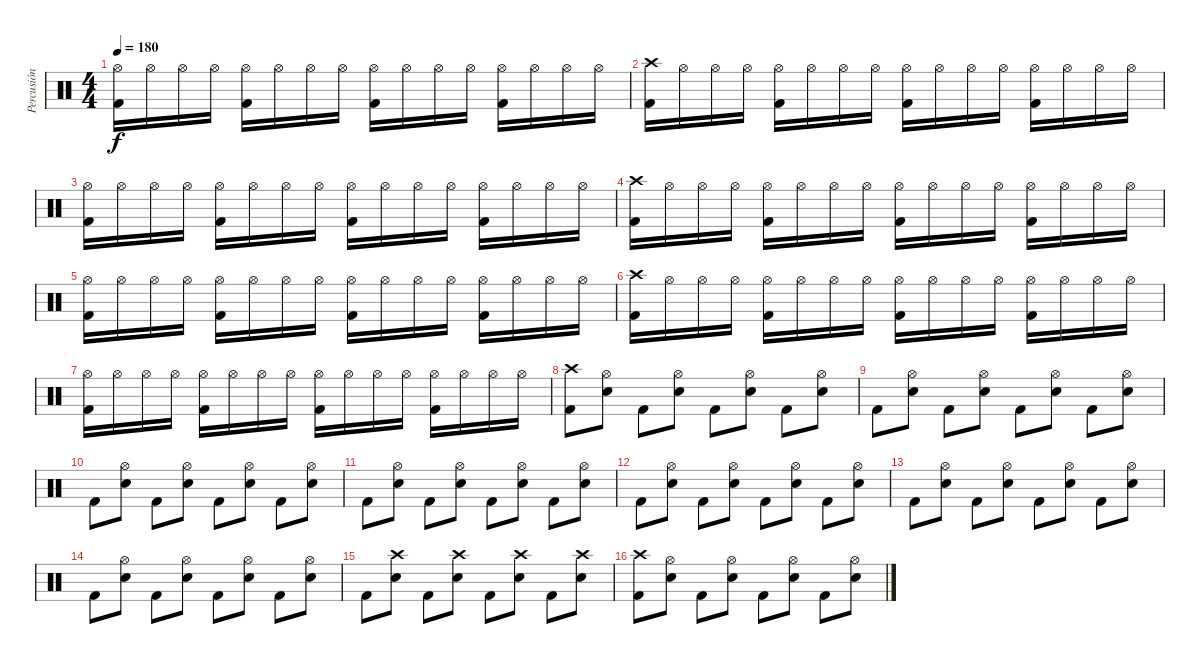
\track ("Percusión" "Percusión") {instrument percussion}
\staff {score}
\articulation defaults
\ts (4 4)
\tempo 180
\clef neutral
\ks c
("Hi-Hat (open)" "Kick (hit) 2").16{dy f} "Hi-Hat (open)".16 "Hi-Hat (open)".16 "Hi-Hat (open)".16 ("Hi-Hat (open)" "Kick (hit) 2").16 "Hi-Hat (open)".16 "Hi-Hat (open)".16 "Hi-Hat (open)".16 ("Hi-Hat (open)" "Kick (hit) 2").16 "Hi-Hat (open)".16 "Hi-Hat (open)".16 "Hi-Hat (open)".16 ("Hi-Hat (open)" "Kick (hit) 2").16 "Hi-Hat (open)".16 "Hi-Hat (open)".16 "Hi-Hat (open)".16 |
("Crash high (hit)" "Kick (hit) 2").16 "Hi-Hat (open)".16 "Hi-Hat (open)".16 "Hi-Hat (open)".16 ("Hi-Hat (open)" "Kick (hit) 2").16 "Hi-Hat (open)".16 "Hi-Hat (open)".16 "Hi-Hat (open)".16 ("Hi-Hat (open)" "Kick (hit) 2").16 "Hi-Hat (open)".16 "Hi-Hat (open)".16 "Hi-Hat (open)".16 ("Hi-Hat (open)" "Kick (hit) 2").16 "Hi-Hat (open)".16 "Hi-Hat (open)".16 "Hi-Hat (open)".16 |
("Hi-Hat (open)" "Kick (hit) 2").16 "Hi-Hat (open)".16 "Hi-Hat (open)".16 "Hi-Hat (open)".16 ("Hi-Hat (open)" "Kick (hit) 2").16 "Hi-Hat (open)".16 "Hi-Hat (open)".16 "Hi-Hat (open)".16 ("Hi-Hat (open)" "Kick (hit) 2").16 "Hi-Hat (open)".16 "Hi-Hat (open)".16 "Hi-Hat (open)".16 ("Hi-Hat (open)" "Kick (hit) 2").16 "Hi-Hat (open)".16 "Hi-Hat (open)".16 "Hi-Hat (open)".16 |
("Crash high (hit)" "Kick (hit) 2").16 "Hi-Hat (open)".16 "Hi-Hat (open)".16 "Hi-Hat (open)".16 ("Hi-Hat (open)" "Kick (hit) 2").16 "Hi-Hat (open)".16 "Hi-Hat (open)".16 "Hi-Hat (open)".16 ("Hi-Hat (open)" "Kick (hit) 2").16 "Hi-Hat (open)".16 "Hi-Hat (open)".16 "Hi-Hat (open)".16 ("Hi-Hat (open)" "Kick (hit) 2").16 "Hi-Hat (open)".16 "Hi-Hat (open)".16 "Hi-Hat (open)".16 |
("Hi-Hat (open)" "Kick (hit) 2").16 "Hi-Hat (open)".16 "Hi-Hat (open)".16 "Hi-Hat (open)".16 ("Hi-Hat (open)" "Kick (hit) 2").16 "Hi-Hat (open)".16 "Hi-Hat (open)".16 "Hi-Hat (open)".16 ("Hi-Hat (open)" "Kick (hit) 2").16 "Hi-Hat (open)".16 "Hi-Hat (open)".16 "Hi-Hat (open)".16 ("Hi-Hat (open)" "Kick (hit) 2").16 "Hi-Hat (open)".16 "Hi-Hat (open)".16 "Hi-Hat (open)".16 |
("Crash high (hit)" "Kick (hit) 2").16 "Hi-Hat (open)".16 "Hi-Hat (open)".16 "Hi-Hat (open)".16 ("Hi-Hat (open)" "Kick (hit) 2").16 "Hi-Hat (open)".16 "Hi-Hat (open)".16 "Hi-Hat (open)".16 ("Hi-Hat (open)" "Kick (hit) 2").16 "Hi-Hat (open)".16 "Hi-Hat (open)".16 "Hi-Hat (open)".16 ("Hi-Hat (open)" "Kick (hit) 2").16 "Hi-Hat (open)".16 "Hi-Hat (open)".16 "Hi-Hat (open)".16 |
("Hi-Hat (open)" "Kick (hit) 2").16 "Hi-Hat (open)".16 "Hi-Hat (open)".16 "Hi-Hat (open)".16 ("Hi-Hat (open)" "Kick (hit) 2").16 "Hi-Hat (open)".16 "Hi-Hat (open)".16 "Hi-Hat (open)".16 ("Hi-Hat (open)" "Kick (hit) 2").16 "Hi-Hat (open)".16 "Hi-Hat (open)".16 "Hi-Hat (open)".16 ("Hi-Hat (open)" "Kick (hit) 2").16 "Hi-Hat (open)".16 "Hi-Hat (open)".16 "Hi-Hat (open)".16 |
("Crash high (hit)" "Kick (hit) 2").8 ("Hi-Hat (open)" "Electric Snare (hit)").8 "Kick (hit) 2".8 ("Hi-Hat (open)" "Electric Snare (hit)").8 "Kick (hit) 2".8 ("Hi-Hat (open)" "Electric Snare (hit)").8 "Kick (hit) 2".8 ("Hi-Hat (open)" "Electric Snare (hit)").8 |
"Kick (hit) 2".8 ("Hi-Hat (open)" "Electric Snare (hit)").8 "Kick (hit) 2".8 ("Hi-Hat (open)" "Electric Snare (hit)").8 "Kick (hit) 2".8 ("Hi-Hat (open)" "Electric Snare (hit)").8 "Kick (hit) 2".8 ("Hi-Hat (open)" "Electric Snare (hit)").8 |
"Kick (hit) 2".8 ("Hi-Hat (open)" "Electric Snare (hit)").8 "Kick (hit) 2".8 ("Hi-Hat (open)" "Electric Snare (hit)").8 "Kick (hit) 2".8 ("Hi-Hat (open)" "Electric Snare (hit)").8 "Kick (hit) 2".8 ("Hi-Hat (open)" "Electric Snare (hit)").8 |
"Kick (hit) 2".8 ("Hi-Hat (open)" "Electric Snare (hit)").8 "Kick (hit) 2".8 ("Hi-Hat (open)" "Electric Snare (hit)").8 "Kick (hit) 2".8 ("Hi-Hat (open)" "Electric Snare (hit)").8 "Kick (hit) 2".8 ("Hi-Hat (open)" "Electric Snare (hit)").8 |
"Kick (hit) 2".8 ("Hi-Hat (open)" "Electric Snare (hit)").8 "Kick (hit) 2".8 ("Hi-Hat (open)" "Electric Snare (hit)").8 "Kick (hit) 2".8 ("Hi-Hat (open)" "Electric Snare (hit)").8 "Kick (hit) 2".8 ("Hi-Hat (open)" "Electric Snare (hit)").8 |
"Kick (hit) 2".8 ("Hi-Hat (open)" "Electric Snare (hit)").8 "Kick (hit) 2".8 ("Hi-Hat (open)" "Electric Snare (hit)").8 "Kick (hit) 2".8 ("Hi-Hat (open)" "Electric Snare (hit)").8 "Kick (hit) 2".8 ("Hi-Hat (open)" "Electric Snare (hit)").8 |
"Kick (hit) 2".8 ("Hi-Hat (open)" "Electric Snare (hit)").8 "Kick (hit) 2".8 ("Hi-Hat (open)" "Electric Snare (hit)").8 "Kick (hit) 2".8 ("Hi-Hat (open)" "Electric Snare (hit)").8 "Kick (hit) 2".8 ("Hi-Hat (open)" "Electric Snare (hit)").8 |
"Kick (hit) 2".8 ("Crash high (hit)" "Electric Snare (hit)").8 "Kick (hit) 2".8 ("Crash high (hit)" "Electric Snare (hit)").8 "Kick (hit) 2".8 ("Crash high (hit)" "Electric Snare (hit)").8 "Kick (hit) 2".8 ("Crash high (hit)" "Electric Snare (hit)").8 |
("Crash high (hit)" "Kick (hit) 2").8 ("Hi-Hat (open)" "Electric Snare (hit)").8 "Kick (hit) 2".8 ("Hi-Hat (open)" "Electric Snare (hit)").8 "Kick (hit) 2".8 ("Hi-Hat (open)" "Electric Snare (hit)").8 "Kick (hit) 2".8 ("Hi-Hat (open)" "Electric Snare (hit)").8
